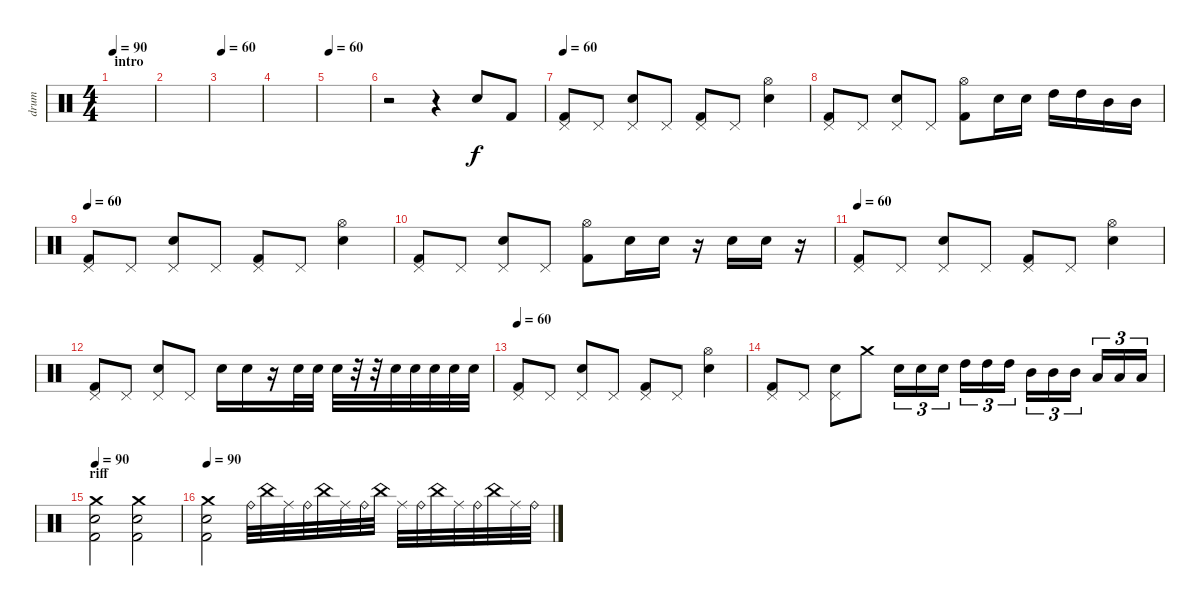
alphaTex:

\track ("drum" "drum") {instrument percussion}
\staff {score}
\articulation defaults
\ts (4 4)
\section ("" "intro")
\tempo 90
\tempo 60
\tempo 90
\clef neutral
\ks c
|
|
\tempo 60
|
|
\tempo 60
|
r.2 r.4 "Electric Snare (hit)".8 "Kick (hit) 2".8 |
\tempo 60
("Pedal Hi-Hat (hit)" "Kick (hit) 2").8 "Pedal Hi-Hat (hit)".8 ("Pedal Hi-Hat (hit)" "Electric Snare (hit)").8 "Pedal Hi-Hat (hit)".8 ("Pedal Hi-Hat (hit)" "Kick (hit) 2").8 "Pedal Hi-Hat (hit)".8 ("Hi-Hat (open)" "Electric Snare (hit)").4 |
("Pedal Hi-Hat (hit)" "Kick (hit) 2").8 "Pedal Hi-Hat (hit)".8 ("Pedal Hi-Hat (hit)" "Electric Snare (hit)").8 "Pedal Hi-Hat (hit)".8 ("Hi-Hat (open)" "Kick (hit) 2").8 "Electric Snare (hit)".16 "Electric Snare (hit)".16 "High Tom (hit)".16 "High Tom (hit)".16 "Mid Tom (hit)".16 "Mid Tom (hit)".16 |
\tempo 60
("Pedal Hi-Hat (hit)" "Kick (hit) 2").8 "Pedal Hi-Hat (hit)".8 ("Pedal Hi-Hat (hit)" "Electric Snare (hit)").8 "Pedal Hi-Hat (hit)".8 ("Pedal Hi-Hat (hit)" "Kick (hit) 2").8 "Pedal Hi-Hat (hit)".8 ("Hi-Hat (open)" "Electric Snare (hit)").4 |
("Pedal Hi-Hat (hit)" "Kick (hit) 2").8 "Pedal Hi-Hat (hit)".8 ("Pedal Hi-Hat (hit)" "Electric Snare (hit)").8 "Pedal Hi-Hat (hit)".8 ("Hi-Hat (open)" "Kick (hit) 2").8 "Electric Snare (hit)".16 "Electric Snare (hit)".16 r.16 "Electric Snare (hit)".16 "Electric Snare (hit)".16 r.16 |
\tempo 60
("Pedal Hi-Hat (hit)" "Kick (hit) 2").8 "Pedal Hi-Hat (hit)".8 ("Pedal Hi-Hat (hit)" "Electric Snare (hit)").8 "Pedal Hi-Hat (hit)".8 ("Pedal Hi-Hat (hit)" "Kick (hit) 2").8 "Pedal Hi-Hat (hit)".8 ("Hi-Hat (open)" "Electric Snare (hit)").4 |
("Pedal Hi-Hat (hit)" "Kick (hit) 2").8 "Pedal Hi-Hat (hit)".8 ("Pedal Hi-Hat (hit)" "Electric Snare (hit)").8 "Pedal Hi-Hat (hit)".8 "Electric Snare (hit)".16 "Electric Snare (hit)".16 r.16 "Electric Snare (hit)".32 "Electric Snare (hit)".32 "Electric Snare (hit)".32 r.32 r.32 "Electric Snare (hit)".32 "Electric Snare (hit)".32 "Electric Snare (hit)".32 "Electric Snare (hit)".32 "Electric Snare (hit)".32 |
\tempo 60
("Pedal Hi-Hat (hit)" "Kick (hit) 2").8 "Pedal Hi-Hat (hit)".8 ("Pedal Hi-Hat (hit)" "Electric Snare (hit)").8 "Pedal Hi-Hat (hit)".8 ("Pedal Hi-Hat (hit)" "Kick (hit) 2").8 "Pedal Hi-Hat (hit)".8 ("Hi-Hat (open)" "Electric Snare (hit)").4 |
("Pedal Hi-Hat (hit)" "Kick (hit) 2").8 "Pedal Hi-Hat (hit)".8 ("Pedal Hi-Hat (hit)" "Electric Snare (hit)").8 "Crash medium (hit)".8 "Electric Snare (hit)".16{tu (3 2)} "Electric Snare (hit)".16{tu (3 2)} "Electric Snare (hit)".16{tu (3 2)} "High Tom (hit)".16{tu (3 2)} "High Tom (hit)".16{tu (3 2)} "High Tom (hit)".16{tu (3 2)} "Mid Tom (hit)".16{tu (3 2)} "Mid Tom (hit)".16{tu (3 2)} "Mid Tom (hit)".16{tu (3 2)} "Low Tom (hit)".16{tu (3 2)} "Low Tom (hit)".16{tu (3 2)} "Low Tom (hit)".16{tu (3 2)} |
\section ("" "riff")
\tempo 90
("Crash medium (hit)" "Electric Snare (hit)" "Kick (hit) 2").2 ("Crash medium (hit)" "Electric Snare (hit)" "Kick (hit) 2").2 |
\tempo 90
("Crash medium (hit)" "Electric Snare (hit)" "Kick (hit) 2").2 "Ride (bell)".32 "China (hit)".32 "Ride (middle)".32 "Ride (bell)".32 "China (hit)".32 "Ride (middle)".32 "Ride (bell)".32 "China (hit)".32 "Ride (middle)".32 "Ride (bell)".32 "China (hit)".32 "Ride (middle)".32 "Ride (bell)".32 "China (hit)".32 "Ride (middle)".32 "Ride (bell)".32
